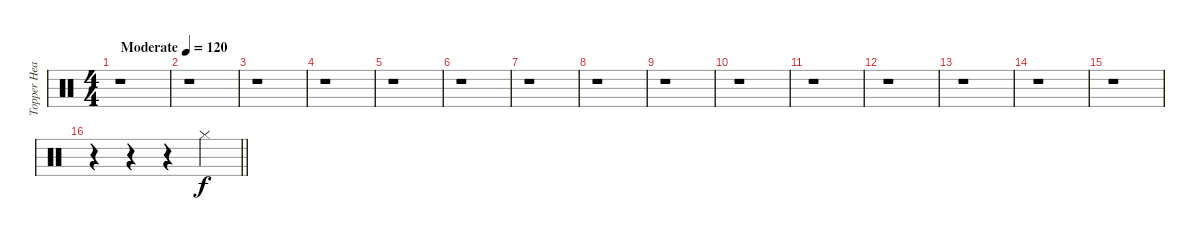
\track ("Topper Headon" "Topper Hea") {instrument percussion}
\staff {score}
\articulation defaults
\ts (4 4)
\tempo (120 "Moderate")
\clef neutral
\ks c
r.1{dy f} |
r.1 |
r.1 |
r.1 |
r.1 |
r.1 |
r.1 |
r.1 |
r.1 |
r.1 |
r.1 |
r.1 |
r.1 |
r.1 |
r.1 |
\barLineRight lightlight
r.4 r.4 r.4 "Hi-Hat (closed)".4
